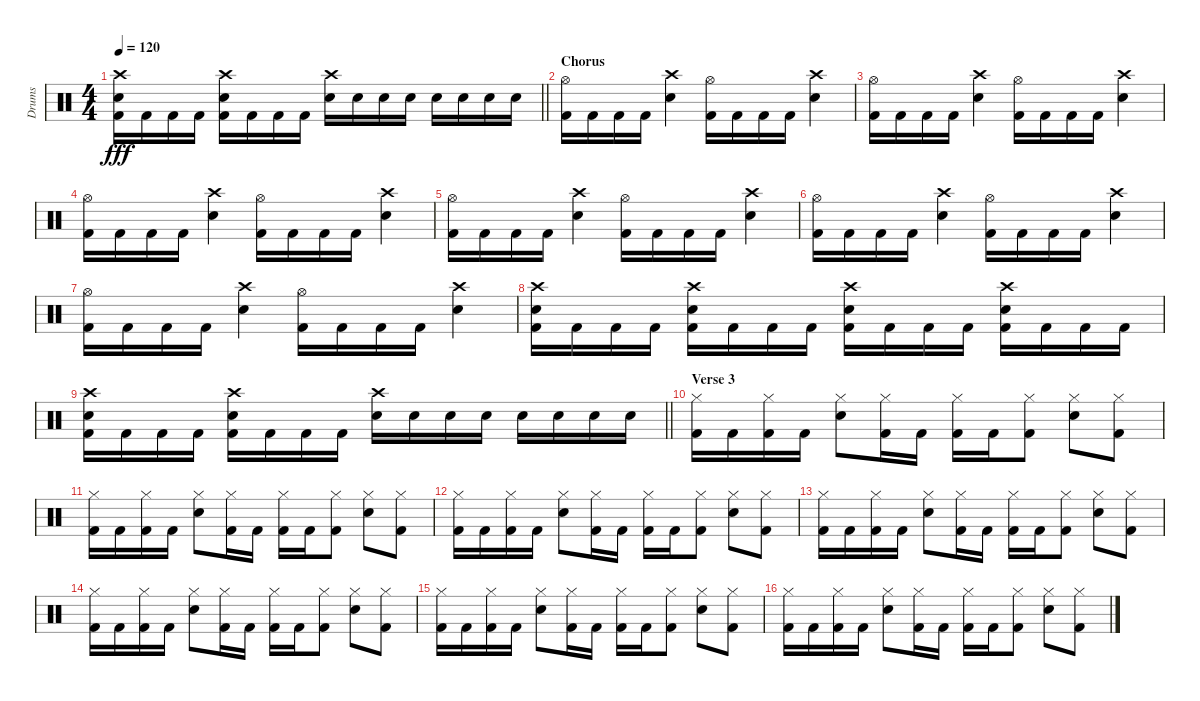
\track ("Drums" "Drums") {instrument percussion}
\staff {score}
\articulation defaults
\ts (4 4)
\tempo 120
\clef neutral
\barLineRight lightlight
\ks c
("Crash high (hit)" "Electric Snare (hit)" "Kick (hit) 2").16{dy fff} "Kick (hit) 2".16 "Kick (hit) 2".16 "Kick (hit) 2".16 ("Crash high (hit)" "Electric Snare (hit)" "Kick (hit) 2").16 "Kick (hit) 2".16 "Kick (hit) 2".16 "Kick (hit) 2".16 ("Crash high (hit)" "Electric Snare (hit)").16 "Electric Snare (hit)".16 "Electric Snare (hit)".16 "Electric Snare (hit)".16 "Electric Snare (hit)".16 "Electric Snare (hit)".16 "Electric Snare (hit)".16 "Electric Snare (hit)".16 |
\section ("" "Chorus")
("Hi-Hat (open)" "Kick (hit) 2").16 "Kick (hit) 2".16 "Kick (hit) 2".16 "Kick (hit) 2".16 ("Crash high (hit)" "Electric Snare (hit)").4 ("Hi-Hat (open)" "Kick (hit) 2").16 "Kick (hit) 2".16 "Kick (hit) 2".16 "Kick (hit) 2".16 ("Crash high (hit)" "Electric Snare (hit)").4 |
("Hi-Hat (open)" "Kick (hit) 2").16 "Kick (hit) 2".16 "Kick (hit) 2".16 "Kick (hit) 2".16 ("Crash high (hit)" "Electric Snare (hit)").4 ("Hi-Hat (open)" "Kick (hit) 2").16 "Kick (hit) 2".16 "Kick (hit) 2".16 "Kick (hit) 2".16 ("Crash high (hit)" "Electric Snare (hit)").4 |
("Hi-Hat (open)" "Kick (hit) 2").16 "Kick (hit) 2".16 "Kick (hit) 2".16 "Kick (hit) 2".16 ("Crash high (hit)" "Electric Snare (hit)").4 ("Hi-Hat (open)" "Kick (hit) 2").16 "Kick (hit) 2".16 "Kick (hit) 2".16 "Kick (hit) 2".16 ("Crash high (hit)" "Electric Snare (hit)").4 |
("Hi-Hat (open)" "Kick (hit) 2").16 "Kick (hit) 2".16 "Kick (hit) 2".16 "Kick (hit) 2".16 ("Crash high (hit)" "Electric Snare (hit)").4 ("Hi-Hat (open)" "Kick (hit) 2").16 "Kick (hit) 2".16 "Kick (hit) 2".16 "Kick (hit) 2".16 ("Crash high (hit)" "Electric Snare (hit)").4 |
("Hi-Hat (open)" "Kick (hit) 2").16 "Kick (hit) 2".16 "Kick (hit) 2".16 "Kick (hit) 2".16 ("Crash high (hit)" "Electric Snare (hit)").4 ("Hi-Hat (open)" "Kick (hit) 2").16 "Kick (hit) 2".16 "Kick (hit) 2".16 "Kick (hit) 2".16 ("Crash high (hit)" "Electric Snare (hit)").4 |
("Hi-Hat (open)" "Kick (hit) 2").16 "Kick (hit) 2".16 "Kick (hit) 2".16 "Kick (hit) 2".16 ("Crash high (hit)" "Electric Snare (hit)").4 ("Hi-Hat (open)" "Kick (hit) 2").16 "Kick (hit) 2".16 "Kick (hit) 2".16 "Kick (hit) 2".16 ("Crash high (hit)" "Electric Snare (hit)").4 |
("Crash high (hit)" "Electric Snare (hit)" "Kick (hit) 2").16 "Kick (hit) 2".16 "Kick (hit) 2".16 "Kick (hit) 2".16 ("Crash high (hit)" "Electric Snare (hit)" "Kick (hit) 2").16 "Kick (hit) 2".16 "Kick (hit) 2".16 "Kick (hit) 2".16 ("Crash high (hit)" "Electric Snare (hit)" "Kick (hit) 2").16 "Kick (hit) 2".16 "Kick (hit) 2".16 "Kick (hit) 2".16 ("Crash high (hit)" "Electric Snare (hit)" "Kick (hit) 2").16 "Kick (hit) 2".16 "Kick (hit) 2".16 "Kick (hit) 2".16 |
\barLineRight lightlight
("Crash high (hit)" "Electric Snare (hit)" "Kick (hit) 2").16 "Kick (hit) 2".16 "Kick (hit) 2".16 "Kick (hit) 2".16 ("Crash high (hit)" "Electric Snare (hit)" "Kick (hit) 2").16 "Kick (hit) 2".16 "Kick (hit) 2".16 "Kick (hit) 2".16 ("Crash high (hit)" "Electric Snare (hit)").16 "Electric Snare (hit)".16 "Electric Snare (hit)".16 "Electric Snare (hit)".16 "Electric Snare (hit)".16 "Electric Snare (hit)".16 "Electric Snare (hit)".16 "Electric Snare (hit)".16 |
\section ("" "Verse 3")
("Hi-Hat (closed)" "Kick (hit) 2").16 "Kick (hit) 2".16 ("Hi-Hat (closed)" "Kick (hit) 2").16 "Kick (hit) 2".16 ("Hi-Hat (closed)" "Electric Snare (hit)").8 ("Hi-Hat (closed)" "Kick (hit) 2").16 "Kick (hit) 2".16 ("Hi-Hat (closed)" "Kick (hit) 2").16 "Kick (hit) 2".16 ("Hi-Hat (closed)" "Kick (hit) 2").8 ("Hi-Hat (closed)" "Electric Snare (hit)").8 ("Hi-Hat (closed)" "Kick (hit) 2").8 |
("Hi-Hat (closed)" "Kick (hit) 2").16 "Kick (hit) 2".16 ("Hi-Hat (closed)" "Kick (hit) 2").16 "Kick (hit) 2".16 ("Hi-Hat (closed)" "Electric Snare (hit)").8 ("Hi-Hat (closed)" "Kick (hit) 2").16 "Kick (hit) 2".16 ("Hi-Hat (closed)" "Kick (hit) 2").16 "Kick (hit) 2".16 ("Hi-Hat (closed)" "Kick (hit) 2").8 ("Hi-Hat (closed)" "Electric Snare (hit)").8 ("Hi-Hat (closed)" "Kick (hit) 2").8 |
("Hi-Hat (closed)" "Kick (hit) 2").16 "Kick (hit) 2".16 ("Hi-Hat (closed)" "Kick (hit) 2").16 "Kick (hit) 2".16 ("Hi-Hat (closed)" "Electric Snare (hit)").8 ("Hi-Hat (closed)" "Kick (hit) 2").16 "Kick (hit) 2".16 ("Hi-Hat (closed)" "Kick (hit) 2").16 "Kick (hit) 2".16 ("Hi-Hat (closed)" "Kick (hit) 2").8 ("Hi-Hat (closed)" "Electric Snare (hit)").8 ("Hi-Hat (closed)" "Kick (hit) 2").8 |
("Hi-Hat (closed)" "Kick (hit) 2").16 "Kick (hit) 2".16 ("Hi-Hat (closed)" "Kick (hit) 2").16 "Kick (hit) 2".16 ("Hi-Hat (closed)" "Electric Snare (hit)").8 ("Hi-Hat (closed)" "Kick (hit) 2").16 "Kick (hit) 2".16 ("Hi-Hat (closed)" "Kick (hit) 2").16 "Kick (hit) 2".16 ("Hi-Hat (closed)" "Kick (hit) 2").8 ("Hi-Hat (closed)" "Electric Snare (hit)").8 ("Hi-Hat (closed)" "Kick (hit) 2").8 |
("Hi-Hat (closed)" "Kick (hit) 2").16 "Kick (hit) 2".16 ("Hi-Hat (closed)" "Kick (hit) 2").16 "Kick (hit) 2".16 ("Hi-Hat (closed)" "Electric Snare (hit)").8 ("Hi-Hat (closed)" "Kick (hit) 2").16 "Kick (hit) 2".16 ("Hi-Hat (closed)" "Kick (hit) 2").16 "Kick (hit) 2".16 ("Hi-Hat (closed)" "Kick (hit) 2").8 ("Hi-Hat (closed)" "Electric Snare (hit)").8 ("Hi-Hat (closed)" "Kick (hit) 2").8 |
("Hi-Hat (closed)" "Kick (hit) 2").16 "Kick (hit) 2".16 ("Hi-Hat (closed)" "Kick (hit) 2").16 "Kick (hit) 2".16 ("Hi-Hat (closed)" "Electric Snare (hit)").8 ("Hi-Hat (closed)" "Kick (hit) 2").16 "Kick (hit) 2".16 ("Hi-Hat (closed)" "Kick (hit) 2").16 "Kick (hit) 2".16 ("Hi-Hat (closed)" "Kick (hit) 2").8 ("Hi-Hat (closed)" "Electric Snare (hit)").8 ("Hi-Hat (closed)" "Kick (hit) 2").8 |
("Hi-Hat (closed)" "Kick (hit) 2").16 "Kick (hit) 2".16 ("Hi-Hat (closed)" "Kick (hit) 2").16 "Kick (hit) 2".16 ("Hi-Hat (closed)" "Electric Snare (hit)").8 ("Hi-Hat (closed)" "Kick (hit) 2").16 "Kick (hit) 2".16 ("Hi-Hat (closed)" "Kick (hit) 2").16 "Kick (hit) 2".16 ("Hi-Hat (closed)" "Kick (hit) 2").8 ("Hi-Hat (closed)" "Electric Snare (hit)").8 ("Hi-Hat (closed)" "Kick (hit) 2").8
